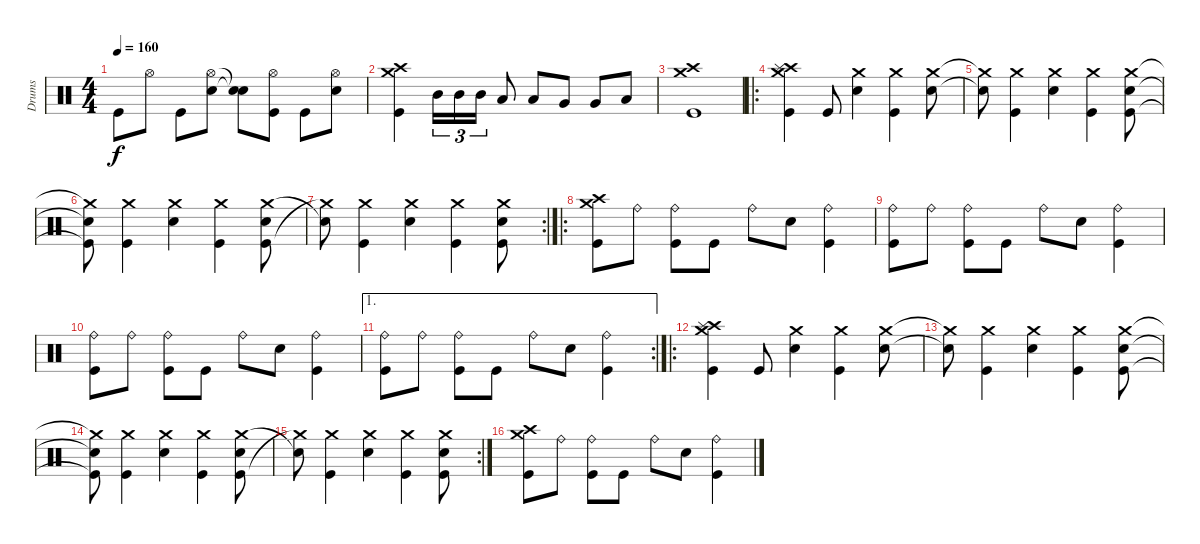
\track ("Drums" "Drums") {instrument percussion}
\staff {score}
\articulation defaults
\ts (4 4)
\tempo 160
\clef neutral
\ks c "Kick (hit)".8{dy f} "Hi-Hat (open)".8 "Kick (hit)".8
("Hi-Hat (open)" "Electric Snare (hit)").8 ("Snare (hit)"{t} "Snare (hit)"{t}).8 ("Kick (hit)" "Hi-Hat (open)").8 "Kick (hit)".8 ("Hi-Hat (open)" "Electric Snare (hit)").8 |
("Kick (hit)" "Crash medium (hit)" "Crash high (hit)").4 "Mid Tom (hit)".16{tu (3 2)} "Mid Tom (hit)".16{tu (3 2)} "Mid Tom (hit)".16{tu (3 2)} "Low Tom (hit)".8 "Low Tom (hit)".8 "Very Low Tom (hit)".8 "Very Low Tom (hit)".8 "Low Floor Tom (hit)".8 |
("Kick (hit)" "Crash medium (hit)" "Crash high (hit)").1 |
\ro
("Kick (hit)" "Crash medium (hit)" "Crash high (hit)" "Splash (hit)").4 "Kick (hit)".8 ("Crash medium (hit)" "Electric Snare (hit)").4 ("Kick (hit)" "Crash medium (hit)").4 ("Crash medium (hit)" "Electric Snare (hit)").8 |
("Crash medium (hit)"{t} "Snare (hit)"{t}).8 ("Kick (hit)" "Crash medium (hit)").4 ("Crash medium (hit)" "Electric Snare (hit)").4 ("Kick (hit)" "Crash medium (hit)").4 ("Kick (hit)" "Crash medium (hit)" "Electric Snare (hit)").8 |
("Kick (hit)"{t} "Crash medium (hit)"{t} "Snare (hit)"{t}).8 ("Kick (hit)" "Crash medium (hit)").4 ("Crash medium (hit)" "Electric Snare (hit)").4 ("Kick (hit)" "Crash medium (hit)").4 ("Kick (hit)" "Crash medium (hit)" "Electric Snare (hit)").8 |
\rc 2
("Crash medium (hit)"{t} "Snare (hit)"{t}).8 ("Kick (hit)" "Crash medium (hit)").4 ("Crash medium (hit)" "Electric Snare (hit)").4 ("Kick (hit)" "Crash medium (hit)").4 ("Kick (hit)" "Crash medium (hit)" "Electric Snare (hit)").8 |
\ro
("Kick (hit)" "Crash high (hit)" "Crash medium (hit)").8 "Ride (bell)".8 ("Kick (hit)" "Ride (bell)").8 "Kick (hit)".8 "Ride (bell)".8 "Electric Snare (hit)".8 ("Kick (hit)" "Ride (bell)").4 |
("Kick (hit)" "Ride (bell)").8 "Ride (bell)".8 ("Kick (hit)" "Ride (bell)").8 "Kick (hit)".8 "Ride (bell)".8 "Electric Snare (hit)".8 ("Kick (hit)" "Ride (bell)").4 |
("Kick (hit)" "Ride (bell)").8 "Ride (bell)".8 ("Kick (hit)" "Ride (bell)").8 "Kick (hit)".8 "Ride (bell)".8 "Electric Snare (hit)".8 ("Kick (hit)" "Ride (bell)").4 |
\ae 1
\rc 2
("Kick (hit)" "Ride (bell)").8 "Ride (bell)".8 ("Kick (hit)" "Ride (bell)").8 "Kick (hit)".8 "Ride (bell)".8 "Electric Snare (hit)".8 ("Kick (hit)" "Ride (bell)").4 |
\ro
("Kick (hit)" "Crash medium (hit)" "Crash high (hit)" "Splash (hit)").4 "Kick (hit)".8 ("Crash medium (hit)" "Electric Snare (hit)").4 ("Kick (hit)" "Crash medium (hit)").4 ("Crash medium (hit)" "Electric Snare (hit)").8 |
("Crash medium (hit)"{t} "Snare (hit)"{t}).8 ("Kick (hit)" "Crash medium (hit)").4 ("Crash medium (hit)" "Electric Snare (hit)").4 ("Kick (hit)" "Crash medium (hit)").4 ("Kick (hit)" "Crash medium (hit)" "Electric Snare (hit)").8 |
("Kick (hit)"{t} "Crash medium (hit)"{t} "Snare (hit)"{t}).8 ("Kick (hit)" "Crash medium (hit)").4 ("Crash medium (hit)" "Electric Snare (hit)").4 ("Kick (hit)" "Crash medium (hit)").4 ("Kick (hit)" "Crash medium (hit)" "Electric Snare (hit)").8 |
\rc 2
("Crash medium (hit)"{t} "Snare (hit)"{t}).8 ("Kick (hit)" "Crash medium (hit)").4 ("Crash medium (hit)" "Electric Snare (hit)").4 ("Kick (hit)" "Crash medium (hit)").4 ("Kick (hit)" "Crash medium (hit)" "Electric Snare (hit)").8 |
("Kick (hit)" "Crash high (hit)" "Crash medium (hit)").8 "Ride (bell)".8 ("Kick (hit)" "Ride (bell)").8 "Kick (hit)".8 "Ride (bell)".8 "Electric Snare (hit)".8 ("Kick (hit)" "Ride (bell)").4
